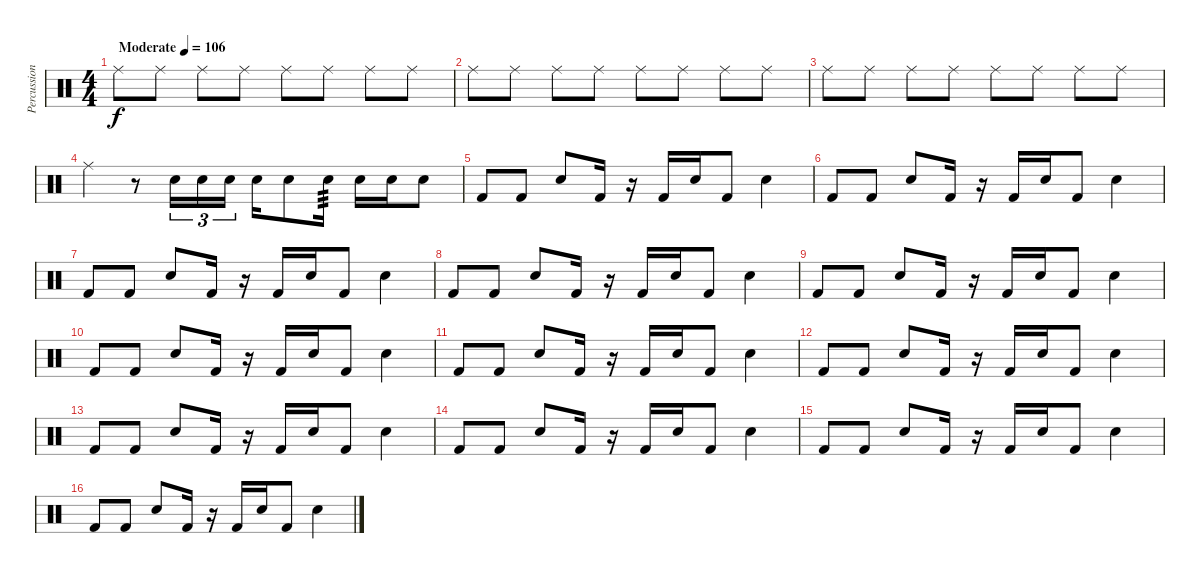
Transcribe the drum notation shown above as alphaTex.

\track ("Percussion" "Percussion") {instrument percussion}
\staff {score}
\articulation defaults
\ts (4 4)
\tempo (106 "Moderate")
\clef neutral
\ks c "Ride (middle)".8{dy f} "Ride (middle)".8 "Ride (middle)".8 "Ride (middle)".8 "Ride (middle)".8 "Ride (middle)".8 "Ride (middle)".8 "Ride (middle)".8
|
"Ride (middle)".8 "Ride (middle)".8 "Ride (middle)".8 "Ride (middle)".8 "Ride (middle)".8 "Ride (middle)".8 "Ride (middle)".8 "Ride (middle)".8 |
"Ride (middle)".8 "Ride (middle)".8 "Ride (middle)".8 "Ride (middle)".8 "Ride (middle)".8 "Ride (middle)".8 "Ride (middle)".8 "Ride (middle)".8 |
"Ride (middle)".4 r.8 "Snare (hit) 2".16{tu (3 2)} "Snare (hit) 2".16{tu (3 2)} "Snare (hit) 2".16{tu (3 2)} "Snare (hit) 2".16 "Snare (hit) 2".8 "Snare (hit) 2".16{tp 3} "Snare (hit) 2".16 "Snare (hit) 2".16 "Snare (hit) 2".8 |
"Kick (hit) 2".8 "Kick (hit) 2".8 "Snare (hit) 2".8 "Kick (hit) 2".16 r.16 "Kick (hit) 2".16 "Snare (hit) 2".16 "Kick (hit) 2".8 "Snare (hit) 2".4 |
"Kick (hit) 2".8 "Kick (hit) 2".8 "Snare (hit) 2".8 "Kick (hit) 2".16 r.16 "Kick (hit) 2".16 "Snare (hit) 2".16 "Kick (hit) 2".8 "Snare (hit) 2".4 |
"Kick (hit) 2".8 "Kick (hit) 2".8 "Snare (hit) 2".8 "Kick (hit) 2".16 r.16 "Kick (hit) 2".16 "Snare (hit) 2".16 "Kick (hit) 2".8 "Snare (hit) 2".4 |
"Kick (hit) 2".8 "Kick (hit) 2".8 "Snare (hit) 2".8 "Kick (hit) 2".16 r.16 "Kick (hit) 2".16 "Snare (hit) 2".16 "Kick (hit) 2".8 "Snare (hit) 2".4 |
"Kick (hit) 2".8 "Kick (hit) 2".8 "Snare (hit) 2".8 "Kick (hit) 2".16 r.16 "Kick (hit) 2".16 "Snare (hit) 2".16 "Kick (hit) 2".8 "Snare (hit) 2".4 |
"Kick (hit) 2".8 "Kick (hit) 2".8 "Snare (hit) 2".8 "Kick (hit) 2".16 r.16 "Kick (hit) 2".16 "Snare (hit) 2".16 "Kick (hit) 2".8 "Snare (hit) 2".4 |
"Kick (hit) 2".8 "Kick (hit) 2".8 "Snare (hit) 2".8 "Kick (hit) 2".16 r.16 "Kick (hit) 2".16 "Snare (hit) 2".16 "Kick (hit) 2".8 "Snare (hit) 2".4 |
"Kick (hit) 2".8 "Kick (hit) 2".8 "Snare (hit) 2".8 "Kick (hit) 2".16 r.16 "Kick (hit) 2".16 "Snare (hit) 2".16 "Kick (hit) 2".8 "Snare (hit) 2".4 |
"Kick (hit) 2".8 "Kick (hit) 2".8 "Snare (hit) 2".8 "Kick (hit) 2".16 r.16 "Kick (hit) 2".16 "Snare (hit) 2".16 "Kick (hit) 2".8 "Snare (hit) 2".4 |
"Kick (hit) 2".8 "Kick (hit) 2".8 "Snare (hit) 2".8 "Kick (hit) 2".16 r.16 "Kick (hit) 2".16 "Snare (hit) 2".16 "Kick (hit) 2".8 "Snare (hit) 2".4 |
"Kick (hit) 2".8 "Kick (hit) 2".8 "Snare (hit) 2".8 "Kick (hit) 2".16 r.16 "Kick (hit) 2".16 "Snare (hit) 2".16 "Kick (hit) 2".8 "Snare (hit) 2".4 |
"Kick (hit) 2".8 "Kick (hit) 2".8 "Snare (hit) 2".8 "Kick (hit) 2".16 r.16 "Kick (hit) 2".16 "Snare (hit) 2".16 "Kick (hit) 2".8 "Snare (hit) 2".4
